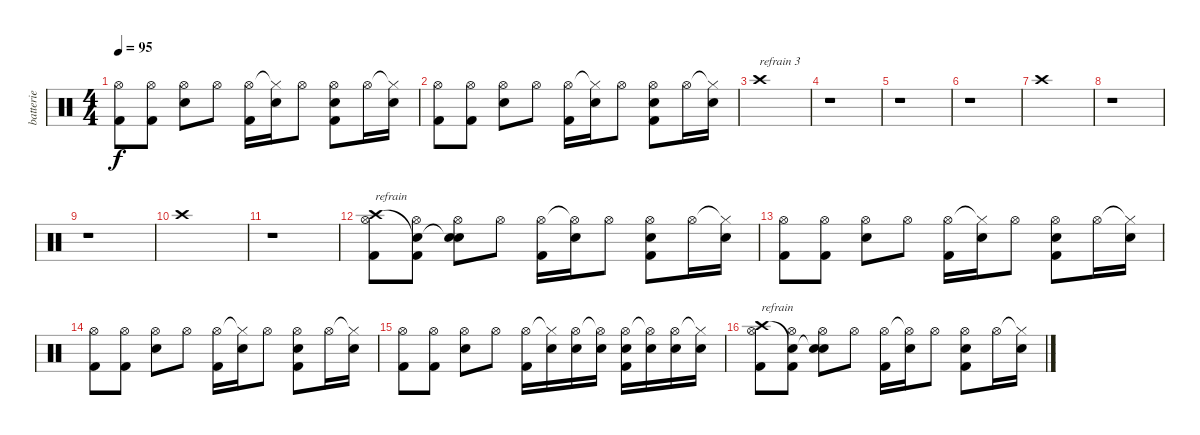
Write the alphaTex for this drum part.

\track ("batterie" "batterie") {instrument percussion}
\staff {score}
\articulation defaults
\ts (4 4)
\tempo 95
\clef neutral
\ks c
("Hi-Hat (open)" "Kick (hit) 2").8{dy f} ("Hi-Hat (open)" "Kick (hit) 2").8 ("Hi-Hat (open)" "Snare (hit) 2").8 "Hi-Hat (open)".8 ("Hi-Hat (open)" "Kick (hit) 2").16 ("Hi-Hat (closed)"{t} "Snare (hit) 2").16 "Hi-Hat (open)".8 ("Hi-Hat (open)" "Snare (hit) 2" "Kick (hit) 2").8 "Hi-Hat (open)".16 ("Hi-Hat (closed)"{t} "Snare (hit) 2").16 |
("Hi-Hat (open)" "Kick (hit) 2").8 ("Hi-Hat (open)" "Kick (hit) 2").8 ("Hi-Hat (open)" "Snare (hit) 2").8 "Hi-Hat (open)".8 ("Hi-Hat (open)" "Kick (hit) 2").16 ("Hi-Hat (closed)"{t} "Snare (hit) 2").16 "Hi-Hat (open)".8 ("Hi-Hat (open)" "Snare (hit) 2" "Kick (hit) 2").8 "Hi-Hat (open)".16 ("Hi-Hat (closed)"{t} "Snare (hit) 2").16 |
"Crash high (hit)".1{txt "refrain 3"} |
r.1 |
r.1 |
r.1 |
"Crash high (hit)".1 |
r.1 |
r.1 |
"Crash high (hit)".1 |
r.1 |
("Crash high (hit)" "Hi-Hat (open)" "Kick (hit) 2").8{txt "refrain"} ("Snare (hit)"{t} "Hi-Hat (open)" "Kick (hit) 2").8 ("Snare (hit)"{t} "Hi-Hat (open)" "Snare (hit) 2").8 "Hi-Hat (open)".8 ("Hi-Hat (open)" "Kick (hit) 2").16 ("Hi-Hat (open)"{t} "Snare (hit) 2").16 "Hi-Hat (open)".8 ("Hi-Hat (open)" "Snare (hit) 2" "Kick (hit) 2").8 "Hi-Hat (open)".16 ("Hi-Hat (closed)"{t} "Snare (hit) 2").16 |
("Hi-Hat (open)" "Kick (hit) 2").8 ("Hi-Hat (open)" "Kick (hit) 2").8 ("Hi-Hat (open)" "Snare (hit) 2").8 "Hi-Hat (open)".8 ("Hi-Hat (open)" "Kick (hit) 2").16 ("Hi-Hat (closed)"{t} "Snare (hit) 2").16 "Hi-Hat (open)".8 ("Hi-Hat (open)" "Snare (hit) 2" "Kick (hit) 2").8 "Hi-Hat (open)".16 ("Hi-Hat (closed)"{t} "Snare (hit) 2").16 |
("Hi-Hat (open)" "Kick (hit) 2").8 ("Hi-Hat (open)" "Kick (hit) 2").8 ("Hi-Hat (open)" "Snare (hit) 2").8 "Hi-Hat (open)".8 ("Hi-Hat (open)" "Kick (hit) 2").16 ("Hi-Hat (closed)"{t} "Snare (hit) 2").16 "Hi-Hat (open)".8 ("Hi-Hat (open)" "Snare (hit) 2" "Kick (hit) 2").8 "Hi-Hat (open)".16 ("Hi-Hat (closed)"{t} "Snare (hit) 2").16 |
("Hi-Hat (open)" "Kick (hit) 2").8 ("Hi-Hat (open)" "Kick (hit) 2").8 ("Hi-Hat (open)" "Snare (hit) 2").8 "Hi-Hat (open)".8 ("Hi-Hat (open)" "Kick (hit) 2").16 ("Hi-Hat (closed)"{t} "Snare (hit) 2").16 ("Hi-Hat (open)" "Snare (hit) 2").16 ("Hi-Hat (open)"{t} "Snare (hit) 2").16 ("Hi-Hat (open)" "Snare (hit) 2" "Kick (hit) 2").16 ("Hi-Hat (open)"{t} "Snare (hit) 2").16 ("Hi-Hat (open)" "Snare (hit) 2").16 ("Hi-Hat (closed)"{t} "Snare (hit) 2").16 |
("Crash high (hit)" "Hi-Hat (open)" "Kick (hit) 2").8{txt "refrain"} ("Snare (hit)"{t} "Hi-Hat (open)" "Kick (hit) 2").8 ("Snare (hit)"{t} "Hi-Hat (open)" "Snare (hit) 2").8 "Hi-Hat (open)".8 ("Hi-Hat (open)" "Kick (hit) 2").16 ("Hi-Hat (open)"{t} "Snare (hit) 2").16 "Hi-Hat (open)".8 ("Hi-Hat (open)" "Snare (hit) 2" "Kick (hit) 2").8 "Hi-Hat (open)".16 ("Hi-Hat (closed)"{t} "Snare (hit) 2").16
